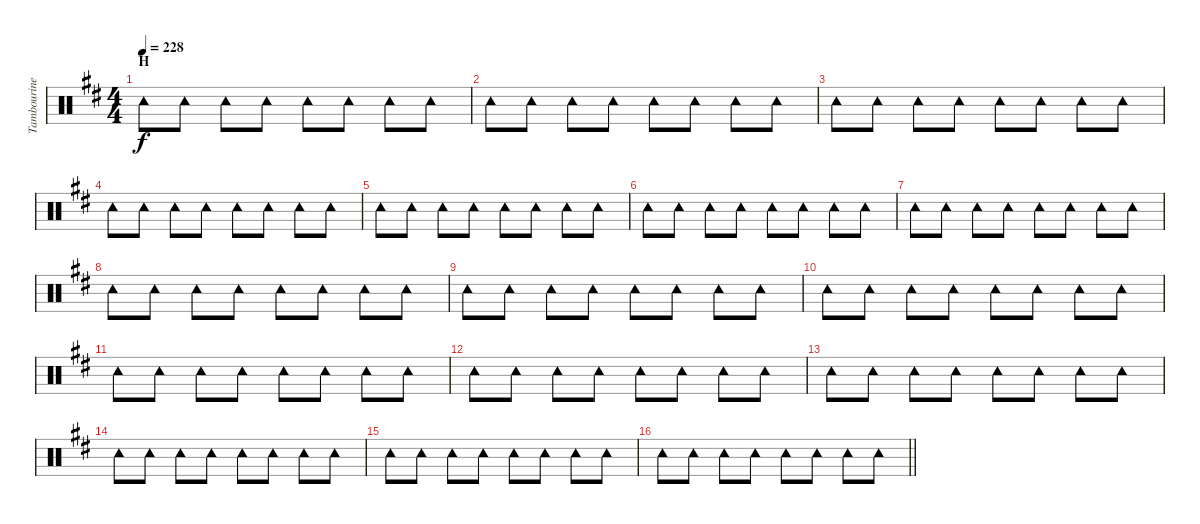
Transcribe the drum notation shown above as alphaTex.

\track ("Tambourine" "Tambourine") {instrument percussion}
\staff {score}
\articulation defaults
\ts (4 4)
\section ("" "H")
\tempo 228
\clef neutral
\ks d "Tambourine (hit)".8{dy f} "Tambourine (hit)".8 "Tambourine (hit)".8 "Tambourine (hit)".8 "Tambourine (hit)".8 "Tambourine (hit)".8 "Tambourine (hit)".8 "Tambourine (hit)".8
|
"Tambourine (hit)".8 "Tambourine (hit)".8 "Tambourine (hit)".8 "Tambourine (hit)".8 "Tambourine (hit)".8 "Tambourine (hit)".8 "Tambourine (hit)".8 "Tambourine (hit)".8 |
"Tambourine (hit)".8 "Tambourine (hit)".8 "Tambourine (hit)".8 "Tambourine (hit)".8 "Tambourine (hit)".8 "Tambourine (hit)".8 "Tambourine (hit)".8 "Tambourine (hit)".8 |
"Tambourine (hit)".8 "Tambourine (hit)".8 "Tambourine (hit)".8 "Tambourine (hit)".8 "Tambourine (hit)".8 "Tambourine (hit)".8 "Tambourine (hit)".8 "Tambourine (hit)".8 |
"Tambourine (hit)".8 "Tambourine (hit)".8 "Tambourine (hit)".8 "Tambourine (hit)".8 "Tambourine (hit)".8 "Tambourine (hit)".8 "Tambourine (hit)".8 "Tambourine (hit)".8 |
"Tambourine (hit)".8 "Tambourine (hit)".8 "Tambourine (hit)".8 "Tambourine (hit)".8 "Tambourine (hit)".8 "Tambourine (hit)".8 "Tambourine (hit)".8 "Tambourine (hit)".8 |
"Tambourine (hit)".8 "Tambourine (hit)".8 "Tambourine (hit)".8 "Tambourine (hit)".8 "Tambourine (hit)".8 "Tambourine (hit)".8 "Tambourine (hit)".8 "Tambourine (hit)".8 |
"Tambourine (hit)".8 "Tambourine (hit)".8 "Tambourine (hit)".8 "Tambourine (hit)".8 "Tambourine (hit)".8 "Tambourine (hit)".8 "Tambourine (hit)".8 "Tambourine (hit)".8 |
"Tambourine (hit)".8 "Tambourine (hit)".8 "Tambourine (hit)".8 "Tambourine (hit)".8 "Tambourine (hit)".8 "Tambourine (hit)".8 "Tambourine (hit)".8 "Tambourine (hit)".8 |
"Tambourine (hit)".8 "Tambourine (hit)".8 "Tambourine (hit)".8 "Tambourine (hit)".8 "Tambourine (hit)".8 "Tambourine (hit)".8 "Tambourine (hit)".8 "Tambourine (hit)".8 |
"Tambourine (hit)".8 "Tambourine (hit)".8 "Tambourine (hit)".8 "Tambourine (hit)".8 "Tambourine (hit)".8 "Tambourine (hit)".8 "Tambourine (hit)".8 "Tambourine (hit)".8 |
"Tambourine (hit)".8 "Tambourine (hit)".8 "Tambourine (hit)".8 "Tambourine (hit)".8 "Tambourine (hit)".8 "Tambourine (hit)".8 "Tambourine (hit)".8 "Tambourine (hit)".8 |
"Tambourine (hit)".8 "Tambourine (hit)".8 "Tambourine (hit)".8 "Tambourine (hit)".8 "Tambourine (hit)".8 "Tambourine (hit)".8 "Tambourine (hit)".8 "Tambourine (hit)".8 |
"Tambourine (hit)".8 "Tambourine (hit)".8 "Tambourine (hit)".8 "Tambourine (hit)".8 "Tambourine (hit)".8 "Tambourine (hit)".8 "Tambourine (hit)".8 "Tambourine (hit)".8 |
"Tambourine (hit)".8 "Tambourine (hit)".8 "Tambourine (hit)".8 "Tambourine (hit)".8 "Tambourine (hit)".8 "Tambourine (hit)".8 "Tambourine (hit)".8 "Tambourine (hit)".8 |
\barLineRight lightlight "Tambourine (hit)".8 "Tambourine (hit)".8 "Tambourine (hit)".8 "Tambourine (hit)".8 "Tambourine (hit)".8 "Tambourine (hit)".8 "Tambourine (hit)".8 "Tambourine (hit)".8
